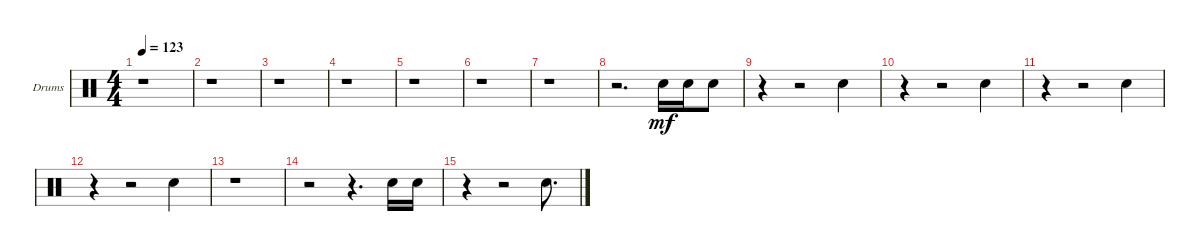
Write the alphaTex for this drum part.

\bracketExtendMode groupsimilarinstruments
\firstSystemTrackNameOrientation horizontal
\otherSystemsTrackNameOrientation horizontal
\track ("Snare Drum" "Drums") {instrument percussion}
\staff {score}
\articulation defaults
\ts (4 4)
\tempo 123
\clef neutral
\ks c
r.1{dy mf} |
r.1 |
r.1 |
r.1 |
r.1 |
r.1 |
r.1 |
r.2{d} "Snare (hit) 2".16 "Snare (hit) 2".16 "Snare (hit) 2".8 |
r.4 r.2 "Snare (hit) 2".4 |
r.4 r.2 "Snare (hit) 2".4 |
r.4 r.2 "Snare (hit) 2".4 |
r.4 r.2 "Snare (hit) 2".4 |
r.1 |
r.2 r.4{d} "Snare (hit) 2".16 "Snare (hit) 2".16 |
r.4 r.2 "Snare (hit) 2".8{d}
